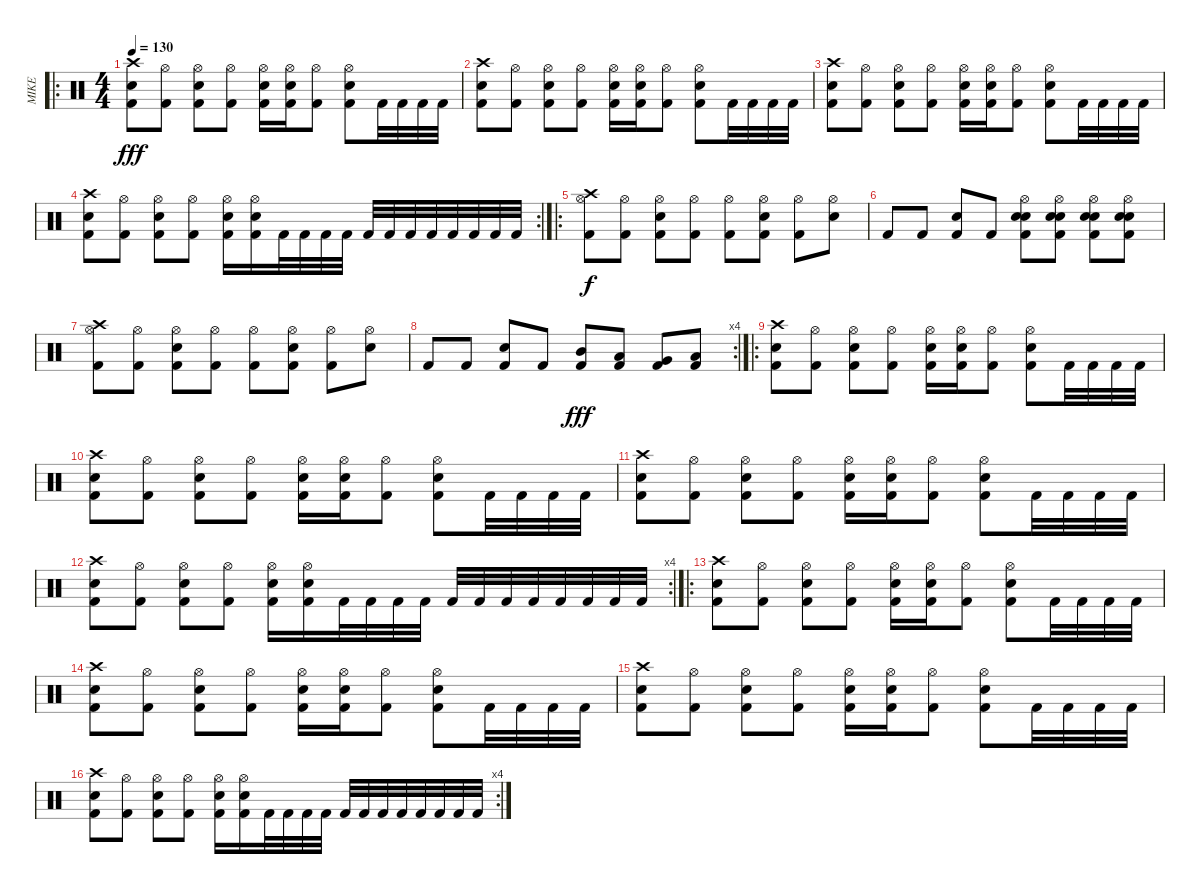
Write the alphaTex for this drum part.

\track ("MIKE" "MIKE") {instrument percussion}
\staff {score}
\articulation defaults
\ro
\ts (4 4)
\tempo 130
\clef neutral
\ks c
("Crash high (hit)" "Electric Snare (hit)" "Kick (hit) 2").8{dy fff} ("Hi-Hat (open)" "Kick (hit) 2").8 ("Hi-Hat (open)" "Electric Snare (hit)" "Kick (hit) 2").8 ("Hi-Hat (open)" "Kick (hit) 2").8 ("Hi-Hat (open)" "Electric Snare (hit)" "Kick (hit) 2").16 ("Hi-Hat (open)" "Electric Snare (hit)" "Kick (hit) 2").16 ("Hi-Hat (open)" "Kick (hit) 2").8 ("Hi-Hat (open)" "Electric Snare (hit)" "Kick (hit) 2").8 "Kick (hit) 2".32 "Kick (hit) 2".32 "Kick (hit) 2".32 "Kick (hit) 2".32 |
("Crash high (hit)" "Electric Snare (hit)" "Kick (hit) 2").8 ("Hi-Hat (open)" "Kick (hit) 2").8 ("Hi-Hat (open)" "Electric Snare (hit)" "Kick (hit) 2").8 ("Hi-Hat (open)" "Kick (hit) 2").8 ("Hi-Hat (open)" "Electric Snare (hit)" "Kick (hit) 2").16 ("Hi-Hat (open)" "Electric Snare (hit)" "Kick (hit) 2").16 ("Hi-Hat (open)" "Kick (hit) 2").8 ("Hi-Hat (open)" "Electric Snare (hit)" "Kick (hit) 2").8 "Kick (hit) 2".32 "Kick (hit) 2".32 "Kick (hit) 2".32 "Kick (hit) 2".32 |
("Crash high (hit)" "Electric Snare (hit)" "Kick (hit) 2").8 ("Hi-Hat (open)" "Kick (hit) 2").8 ("Hi-Hat (open)" "Electric Snare (hit)" "Kick (hit) 2").8 ("Hi-Hat (open)" "Kick (hit) 2").8 ("Hi-Hat (open)" "Electric Snare (hit)" "Kick (hit) 2").16 ("Hi-Hat (open)" "Electric Snare (hit)" "Kick (hit) 2").16 ("Hi-Hat (open)" "Kick (hit) 2").8 ("Hi-Hat (open)" "Electric Snare (hit)" "Kick (hit) 2").8 "Kick (hit) 2".32 "Kick (hit) 2".32 "Kick (hit) 2".32 "Kick (hit) 2".32 |
\rc 2
("Crash high (hit)" "Electric Snare (hit)" "Kick (hit) 2").8 ("Hi-Hat (open)" "Kick (hit) 2").8 ("Hi-Hat (open)" "Electric Snare (hit)" "Kick (hit) 2").8 ("Hi-Hat (open)" "Kick (hit) 2").8 ("Hi-Hat (open)" "Electric Snare (hit)" "Kick (hit) 2").16 ("Hi-Hat (open)" "Electric Snare (hit)" "Kick (hit) 2").16 "Kick (hit) 2".32 "Kick (hit) 2".32 "Kick (hit) 2".32 "Kick (hit) 2".32 "Kick (hit) 2".32 "Kick (hit) 2".32 "Kick (hit) 2".32 "Kick (hit) 2".32 "Kick (hit) 2".32 "Kick (hit) 2".32 "Kick (hit) 2".32 "Kick (hit) 2".32 |
\ro
("Crash high (hit)" "Hi-Hat (open)" "Kick (hit) 2").8{dy f} ("Hi-Hat (open)" "Kick (hit) 2").8 ("Hi-Hat (open)" "Snare (hit) 2" "Kick (hit) 2").8 ("Hi-Hat (open)" "Kick (hit) 2").8 ("Hi-Hat (open)" "Kick (hit) 2").8 ("Hi-Hat (open)" "Snare (hit) 2" "Kick (hit) 2").8 ("Hi-Hat (open)" "Kick (hit) 2").8 ("Hi-Hat (open)" "Snare (hit) 2").8 |
"Kick (hit) 2".8 "Kick (hit) 2".8 ("Snare (hit) 2" "Kick (hit) 2").8 "Kick (hit) 2".8 ("Hi-Hat (open)" "Kick (hit) 2" "Snare (hit) 2" "Electric Snare (hit)").8 ("Hi-Hat (open)" "Kick (hit) 2" "Snare (hit) 2" "Electric Snare (hit)").8 ("Hi-Hat (open)" "Kick (hit) 2" "Snare (hit) 2" "Electric Snare (hit)").8 ("Hi-Hat (open)" "Kick (hit) 2" "Snare (hit) 2" "Electric Snare (hit)").8 |
("Crash high (hit)" "Hi-Hat (open)" "Kick (hit) 2").8 ("Hi-Hat (open)" "Kick (hit) 2").8 ("Hi-Hat (open)" "Snare (hit) 2" "Kick (hit) 2").8 ("Hi-Hat (open)" "Kick (hit) 2").8 ("Hi-Hat (open)" "Kick (hit) 2").8 ("Hi-Hat (open)" "Snare (hit) 2" "Kick (hit) 2").8 ("Hi-Hat (open)" "Kick (hit) 2").8 ("Hi-Hat (open)" "Snare (hit) 2").8 |
\rc 4 "Kick (hit) 2".8 "Kick (hit) 2".8
("Snare (hit) 2" "Kick (hit) 2").8 "Kick (hit) 2".8 ("Mid Tom (hit)" "Kick (hit) 2").8{dy fff} ("Low Tom (hit)" "Kick (hit) 2").8 ("Very Low Tom (hit)" "Kick (hit) 2").8 ("Low Floor Tom (hit)" "Kick (hit) 2").8 |
\ro
("Crash high (hit)" "Electric Snare (hit)" "Kick (hit) 2").8 ("Hi-Hat (open)" "Kick (hit) 2").8 ("Hi-Hat (open)" "Electric Snare (hit)" "Kick (hit) 2").8 ("Hi-Hat (open)" "Kick (hit) 2").8 ("Hi-Hat (open)" "Electric Snare (hit)" "Kick (hit) 2").16 ("Hi-Hat (open)" "Electric Snare (hit)" "Kick (hit) 2").16 ("Hi-Hat (open)" "Kick (hit) 2").8 ("Hi-Hat (open)" "Electric Snare (hit)" "Kick (hit) 2").8 "Kick (hit) 2".32 "Kick (hit) 2".32 "Kick (hit) 2".32 "Kick (hit) 2".32 |
("Crash high (hit)" "Electric Snare (hit)" "Kick (hit) 2").8 ("Hi-Hat (open)" "Kick (hit) 2").8 ("Hi-Hat (open)" "Electric Snare (hit)" "Kick (hit) 2").8 ("Hi-Hat (open)" "Kick (hit) 2").8 ("Hi-Hat (open)" "Electric Snare (hit)" "Kick (hit) 2").16 ("Hi-Hat (open)" "Electric Snare (hit)" "Kick (hit) 2").16 ("Hi-Hat (open)" "Kick (hit) 2").8 ("Hi-Hat (open)" "Electric Snare (hit)" "Kick (hit) 2").8 "Kick (hit) 2".32 "Kick (hit) 2".32 "Kick (hit) 2".32 "Kick (hit) 2".32 |
("Crash high (hit)" "Electric Snare (hit)" "Kick (hit) 2").8 ("Hi-Hat (open)" "Kick (hit) 2").8 ("Hi-Hat (open)" "Electric Snare (hit)" "Kick (hit) 2").8 ("Hi-Hat (open)" "Kick (hit) 2").8 ("Hi-Hat (open)" "Electric Snare (hit)" "Kick (hit) 2").16 ("Hi-Hat (open)" "Electric Snare (hit)" "Kick (hit) 2").16 ("Hi-Hat (open)" "Kick (hit) 2").8 ("Hi-Hat (open)" "Electric Snare (hit)" "Kick (hit) 2").8 "Kick (hit) 2".32 "Kick (hit) 2".32 "Kick (hit) 2".32 "Kick (hit) 2".32 |
\rc 4
("Crash high (hit)" "Electric Snare (hit)" "Kick (hit) 2").8 ("Hi-Hat (open)" "Kick (hit) 2").8 ("Hi-Hat (open)" "Electric Snare (hit)" "Kick (hit) 2").8 ("Hi-Hat (open)" "Kick (hit) 2").8 ("Hi-Hat (open)" "Electric Snare (hit)" "Kick (hit) 2").16 ("Hi-Hat (open)" "Electric Snare (hit)" "Kick (hit) 2").16 "Kick (hit) 2".32 "Kick (hit) 2".32 "Kick (hit) 2".32 "Kick (hit) 2".32 "Kick (hit) 2".32 "Kick (hit) 2".32 "Kick (hit) 2".32 "Kick (hit) 2".32 "Kick (hit) 2".32 "Kick (hit) 2".32 "Kick (hit) 2".32 "Kick (hit) 2".32 |
\ro
("Crash high (hit)" "Electric Snare (hit)" "Kick (hit) 2").8 ("Hi-Hat (open)" "Kick (hit) 2").8 ("Hi-Hat (open)" "Electric Snare (hit)" "Kick (hit) 2").8 ("Hi-Hat (open)" "Kick (hit) 2").8 ("Hi-Hat (open)" "Electric Snare (hit)" "Kick (hit) 2").16 ("Hi-Hat (open)" "Electric Snare (hit)" "Kick (hit) 2").16 ("Hi-Hat (open)" "Kick (hit) 2").8 ("Hi-Hat (open)" "Electric Snare (hit)" "Kick (hit) 2").8 "Kick (hit) 2".32 "Kick (hit) 2".32 "Kick (hit) 2".32 "Kick (hit) 2".32 |
("Crash high (hit)" "Electric Snare (hit)" "Kick (hit) 2").8 ("Hi-Hat (open)" "Kick (hit) 2").8 ("Hi-Hat (open)" "Electric Snare (hit)" "Kick (hit) 2").8 ("Hi-Hat (open)" "Kick (hit) 2").8 ("Hi-Hat (open)" "Electric Snare (hit)" "Kick (hit) 2").16 ("Hi-Hat (open)" "Electric Snare (hit)" "Kick (hit) 2").16 ("Hi-Hat (open)" "Kick (hit) 2").8 ("Hi-Hat (open)" "Electric Snare (hit)" "Kick (hit) 2").8 "Kick (hit) 2".32 "Kick (hit) 2".32 "Kick (hit) 2".32 "Kick (hit) 2".32 |
("Crash high (hit)" "Electric Snare (hit)" "Kick (hit) 2").8 ("Hi-Hat (open)" "Kick (hit) 2").8 ("Hi-Hat (open)" "Electric Snare (hit)" "Kick (hit) 2").8 ("Hi-Hat (open)" "Kick (hit) 2").8 ("Hi-Hat (open)" "Electric Snare (hit)" "Kick (hit) 2").16 ("Hi-Hat (open)" "Electric Snare (hit)" "Kick (hit) 2").16 ("Hi-Hat (open)" "Kick (hit) 2").8 ("Hi-Hat (open)" "Electric Snare (hit)" "Kick (hit) 2").8 "Kick (hit) 2".32 "Kick (hit) 2".32 "Kick (hit) 2".32 "Kick (hit) 2".32 |
\rc 4
("Crash high (hit)" "Electric Snare (hit)" "Kick (hit) 2").8 ("Hi-Hat (open)" "Kick (hit) 2").8 ("Hi-Hat (open)" "Electric Snare (hit)" "Kick (hit) 2").8 ("Hi-Hat (open)" "Kick (hit) 2").8 ("Hi-Hat (open)" "Electric Snare (hit)" "Kick (hit) 2").16 ("Hi-Hat (open)" "Electric Snare (hit)" "Kick (hit) 2").16 "Kick (hit) 2".32 "Kick (hit) 2".32 "Kick (hit) 2".32 "Kick (hit) 2".32 "Kick (hit) 2".32 "Kick (hit) 2".32 "Kick (hit) 2".32 "Kick (hit) 2".32 "Kick (hit) 2".32 "Kick (hit) 2".32 "Kick (hit) 2".32 "Kick (hit) 2".32
